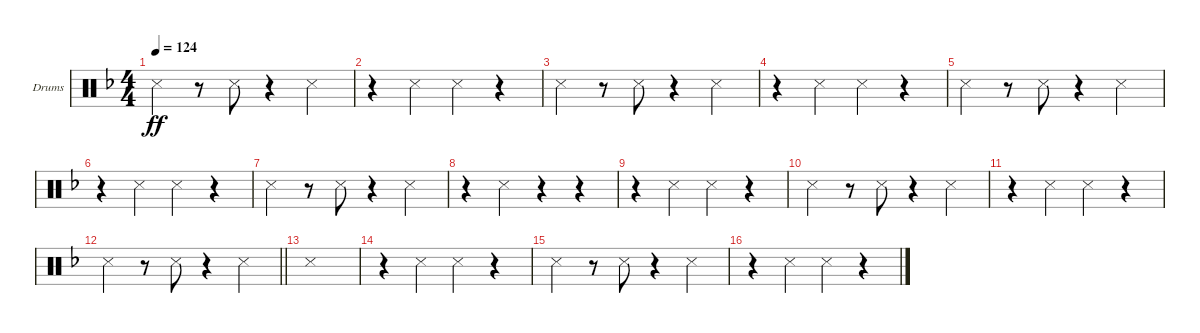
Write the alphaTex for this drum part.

\bracketExtendMode groupsimilarinstruments
\firstSystemTrackNameOrientation horizontal
\otherSystemsTrackNameOrientation horizontal
\track ("Sidestick Clave Pattern" "Drums") {instrument percussion}
\staff {score}
\articulation defaults
\ts (4 4)
\tempo 124
\clef neutral
\scale
0.333333
\ks dminor "Snare (side stick) 3".4{dy ff}
r.8 "Snare (side stick) 3".8 r.4 "Snare (side stick) 3".4 |
\scale
0.333333 r.4 "Snare (side stick) 3".4 "Snare (side stick) 3".4 r.4 |
\scale
0.333333 "Snare (side stick) 3".4 r.8 "Snare (side stick) 3".8 r.4 "Snare (side stick) 3".4 |
\scale
0.333333 r.4 "Snare (side stick) 3".4 "Snare (side stick) 3".4 r.4 |
\scale
0.333333 "Snare (side stick) 3".4 r.8 "Snare (side stick) 3".8 r.4 "Snare (side stick) 3".4 |
\scale
0.333333 r.4 "Snare (side stick) 3".4 "Snare (side stick) 3".4 r.4 |
\scale
0.333333 "Snare (side stick) 3".4 r.8 "Snare (side stick) 3".8 r.4 "Snare (side stick) 3".4 |
\scale
0.333333 r.4 "Snare (side stick) 3".4 r.4 r.4 |
\scale
0.333333 r.4 "Snare (side stick) 3".4 "Snare (side stick) 3".4 r.4 |
\scale
0.333333 "Snare (side stick) 3".4 r.8 "Snare (side stick) 3".8 r.4 "Snare (side stick) 3".4 |
\scale
0.333333 r.4 "Snare (side stick) 3".4 "Snare (side stick) 3".4 r.4 |
\scale
0.333333
\barLineRight lightlight "Snare (side stick) 3".4
r.8 "Snare (side stick) 3".8 r.4 "Snare (side stick) 3".4 |
\scale
0.333333 "Snare (side stick) 3".1 |
\scale
0.333333 r.4 "Snare (side stick) 3".4 "Snare (side stick) 3".4 r.4 |
\scale
0.333333 "Snare (side stick) 3".4 r.8 "Snare (side stick) 3".8 r.4 "Snare (side stick) 3".4 |
\scale
0.333333 r.4 "Snare (side stick) 3".4 "Snare (side stick) 3".4 r.4
